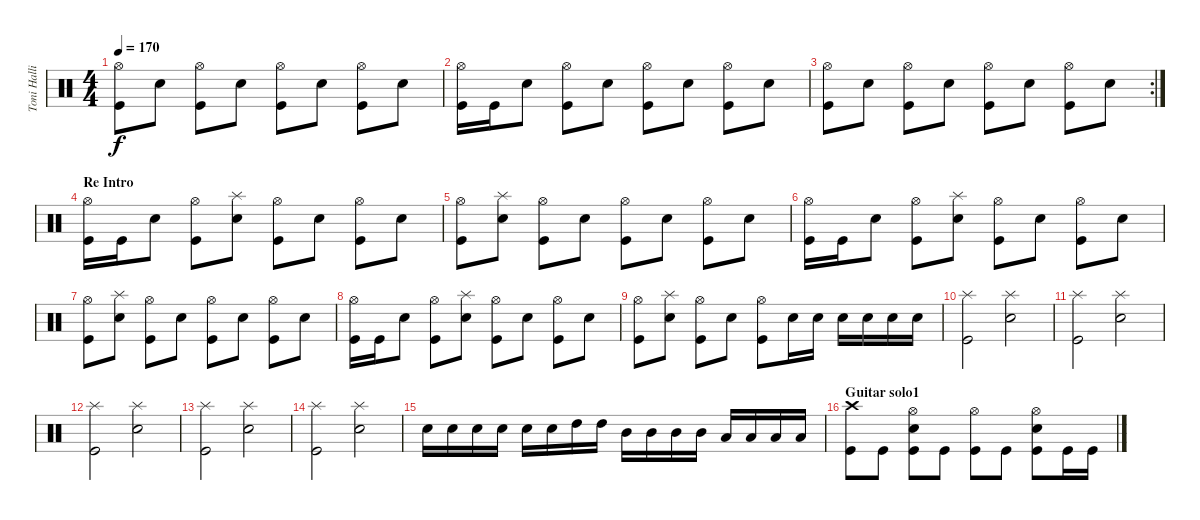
\track ("Toni Hallio" "Toni Halli") {instrument percussion}
\staff {score}
\articulation defaults
\ts (4 4)
\tempo 170
\clef neutral
\ks c
("Hi-Hat (open)" "Kick (hit)").8{dy f} "Snare (hit) 2".8 ("Hi-Hat (open)" "Kick (hit)").8 "Snare (hit) 2".8 ("Hi-Hat (open)" "Kick (hit)").8 "Snare (hit) 2".8 ("Hi-Hat (open)" "Kick (hit)").8 "Snare (hit) 2".8 |
("Hi-Hat (open)" "Kick (hit)").16 "Kick (hit)".16 "Snare (hit) 2".8 ("Hi-Hat (open)" "Kick (hit)").8 "Snare (hit) 2".8 ("Hi-Hat (open)" "Kick (hit)").8 "Snare (hit) 2".8 ("Hi-Hat (open)" "Kick (hit)").8 "Snare (hit) 2".8 |
\rc 2
("Hi-Hat (open)" "Kick (hit)").8 "Snare (hit) 2".8 ("Hi-Hat (open)" "Kick (hit)").8 "Snare (hit) 2".8 ("Hi-Hat (open)" "Kick (hit)").8 "Snare (hit) 2".8 ("Hi-Hat (open)" "Kick (hit)").8 "Snare (hit) 2".8 |
\section ("" "Re Intro")
("Hi-Hat (open)" "Kick (hit)").16 "Kick (hit)".16 "Snare (hit) 2".8 ("Hi-Hat (open)" "Kick (hit)").8 ("Splash (hit)" "Snare (hit) 2").8 ("Hi-Hat (open)" "Kick (hit)").8 "Snare (hit) 2".8 ("Hi-Hat (open)" "Kick (hit)").8 "Snare (hit) 2".8 |
("Hi-Hat (open)" "Kick (hit)").8 ("Splash (hit)" "Snare (hit) 2").8 ("Hi-Hat (open)" "Kick (hit)").8 "Snare (hit) 2".8 ("Hi-Hat (open)" "Kick (hit)").8 "Snare (hit) 2".8 ("Hi-Hat (open)" "Kick (hit)").8 "Snare (hit) 2".8 |
("Hi-Hat (open)" "Kick (hit)").16 "Kick (hit)".16 "Snare (hit) 2".8 ("Hi-Hat (open)" "Kick (hit)").8 ("Splash (hit)" "Snare (hit) 2").8 ("Hi-Hat (open)" "Kick (hit)").8 "Snare (hit) 2".8 ("Hi-Hat (open)" "Kick (hit)").8 "Snare (hit) 2".8 |
("Hi-Hat (open)" "Kick (hit)").8 ("Splash (hit)" "Snare (hit) 2").8 ("Hi-Hat (open)" "Kick (hit)").8 "Snare (hit) 2".8 ("Hi-Hat (open)" "Kick (hit)").8 "Snare (hit) 2".8 ("Hi-Hat (open)" "Kick (hit)").8 "Snare (hit) 2".8 |
("Hi-Hat (open)" "Kick (hit)").16 "Kick (hit)".16 "Snare (hit) 2".8 ("Hi-Hat (open)" "Kick (hit)").8 ("Splash (hit)" "Snare (hit) 2").8 ("Hi-Hat (open)" "Kick (hit)").8 "Snare (hit) 2".8 ("Hi-Hat (open)" "Kick (hit)").8 "Snare (hit) 2".8 |
("Hi-Hat (open)" "Kick (hit)").8 ("Splash (hit)" "Snare (hit) 2").8 ("Hi-Hat (open)" "Kick (hit)").8 "Snare (hit) 2".8 ("Hi-Hat (open)" "Kick (hit)").8 "Snare (hit) 2".16 "Snare (hit) 2".16 "Snare (hit) 2".16 "Snare (hit) 2".16 "Snare (hit) 2".16 "Snare (hit) 2".16 |
("Splash (hit)" "Kick (hit)").2 ("Splash (hit)" "Snare (hit) 2").2 |
("Splash (hit)" "Kick (hit)").2 ("Splash (hit)" "Snare (hit) 2").2 |
("Splash (hit)" "Kick (hit)").2 ("Splash (hit)" "Snare (hit) 2").2 |
("Splash (hit)" "Kick (hit)").2 ("Splash (hit)" "Snare (hit) 2").2 |
("Splash (hit)" "Kick (hit)").2 ("Splash (hit)" "Snare (hit) 2").2 |
"Snare (hit) 2".16 "Snare (hit) 2".16 "Snare (hit) 2".16 "Snare (hit) 2".16 "Snare (hit) 2".16 "Snare (hit) 2".16 "High Tom (hit)".16 "High Tom (hit)".16 "Mid Tom (hit)".16 "Mid Tom (hit)".16 "Mid Tom (hit)".16 "Mid Tom (hit)".16 "Low Tom (hit)".16 "Low Tom (hit)".16 "Low Tom (hit)".16 "Low Tom (hit)".16 |
\section ("" "Guitar solo1")
("Crash high (hit)" "Kick (hit)").8 "Kick (hit)".8 ("Hi-Hat (open)" "Snare (hit) 2" "Kick (hit)").8 "Kick (hit)".8 ("Hi-Hat (open)" "Kick (hit)").8 "Kick (hit)".8 ("Hi-Hat (open)" "Snare (hit) 2" "Kick (hit)").8 "Kick (hit)".16 "Kick (hit)".16
